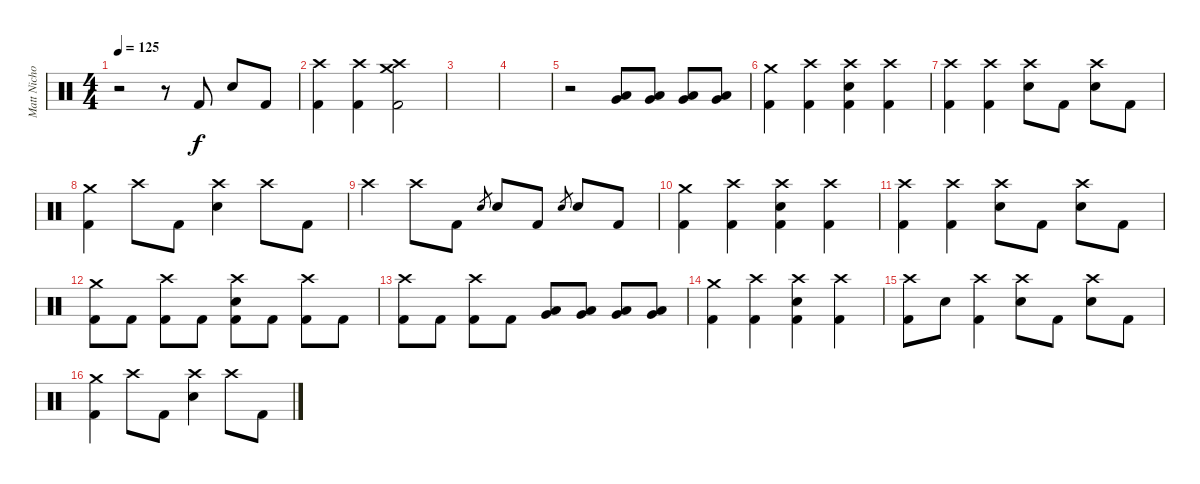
\track ("Matt Nicholls" "Matt Nicho") {instrument percussion}
\staff {score}
\articulation defaults
\ts (4 4)
\tempo 125
\clef neutral
\ks c
r.2{dy f} r.8 "Kick (hit) 2".8 "Electric Snare (hit)".8 "Kick (hit) 2".8 |
("Crash high (hit)" "Kick (hit) 2").4 ("Crash high (hit)" "Kick (hit) 2").4 ("Crash medium (hit)" "Crash high (hit)" "Kick (hit) 2").2 |
|
|
r.2 ("Very Low Tom (hit)" "Low Floor Tom (hit)").8 ("Very Low Tom (hit)" "Low Floor Tom (hit)").8 ("Very Low Tom (hit)" "Low Floor Tom (hit)").8 ("Very Low Tom (hit)" "Low Floor Tom (hit)").8 |
("Crash medium (hit)" "Kick (hit) 2").4 ("Crash high (hit)" "Kick (hit) 2").4 ("Crash high (hit)" "Electric Snare (hit)" "Kick (hit) 2").4 ("Crash high (hit)" "Kick (hit) 2").4 |
("Crash high (hit)" "Kick (hit) 2").4 ("Crash high (hit)" "Kick (hit) 2").4 ("Crash high (hit)" "Electric Snare (hit)").8 "Kick (hit) 2".8 ("Crash high (hit)" "Electric Snare (hit)").8 "Kick (hit) 2".8 |
("Crash medium (hit)" "Kick (hit) 2").4 "Crash high (hit)".8 "Kick (hit) 2".8 ("Crash high (hit)" "Electric Snare (hit)").4 "Crash high (hit)".8 "Kick (hit) 2".8 |
"Crash high (hit)".4 "Crash high (hit)".8 "Kick (hit) 2".8 "Electric Snare (hit)".8{gr} "Electric Snare (hit)".8 "Kick (hit) 2".8 "Electric Snare (hit)".8{gr} "Electric Snare (hit)".8 "Kick (hit) 2".8 |
("Crash medium (hit)" "Kick (hit) 2").4 ("Crash high (hit)" "Kick (hit) 2").4 ("Crash high (hit)" "Electric Snare (hit)" "Kick (hit) 2").4 ("Crash high (hit)" "Kick (hit) 2").4 |
("Crash high (hit)" "Kick (hit) 2").4 ("Crash high (hit)" "Kick (hit) 2").4 ("Crash high (hit)" "Electric Snare (hit)").8 "Kick (hit) 2".8 ("Crash high (hit)" "Electric Snare (hit)").8 "Kick (hit) 2".8 |
("Crash medium (hit)" "Kick (hit) 2").8 "Kick (hit) 2".8 ("Crash high (hit)" "Kick (hit) 2").8 "Kick (hit) 2".8 ("Crash high (hit)" "Electric Snare (hit)" "Kick (hit) 2").8 "Kick (hit) 2".8 ("Crash high (hit)" "Kick (hit) 2").8 "Kick (hit) 2".8 |
("Crash high (hit)" "Kick (hit) 2").8 "Kick (hit) 2".8 ("Crash high (hit)" "Kick (hit) 2").8 "Kick (hit) 2".8 ("Very Low Tom (hit)" "Low Floor Tom (hit)").8 ("Very Low Tom (hit)" "Low Floor Tom (hit)").8 ("Very Low Tom (hit)" "Low Floor Tom (hit)").8 ("Very Low Tom (hit)" "Low Floor Tom (hit)").8 |
("Crash medium (hit)" "Kick (hit) 2").4 ("Crash high (hit)" "Kick (hit) 2").4 ("Crash high (hit)" "Electric Snare (hit)" "Kick (hit) 2").4 ("Crash high (hit)" "Kick (hit) 2").4 |
("Crash high (hit)" "Kick (hit) 2").8 "Electric Snare (hit)".8 ("Crash high (hit)" "Kick (hit) 2").4 ("Crash high (hit)" "Electric Snare (hit)").8 "Kick (hit) 2".8 ("Crash high (hit)" "Electric Snare (hit)").8 "Kick (hit) 2".8 |
("Crash medium (hit)" "Kick (hit) 2").4 "Crash high (hit)".8 "Kick (hit) 2".8 ("Crash high (hit)" "Electric Snare (hit)").4 "Crash high (hit)".8 "Kick (hit) 2".8
